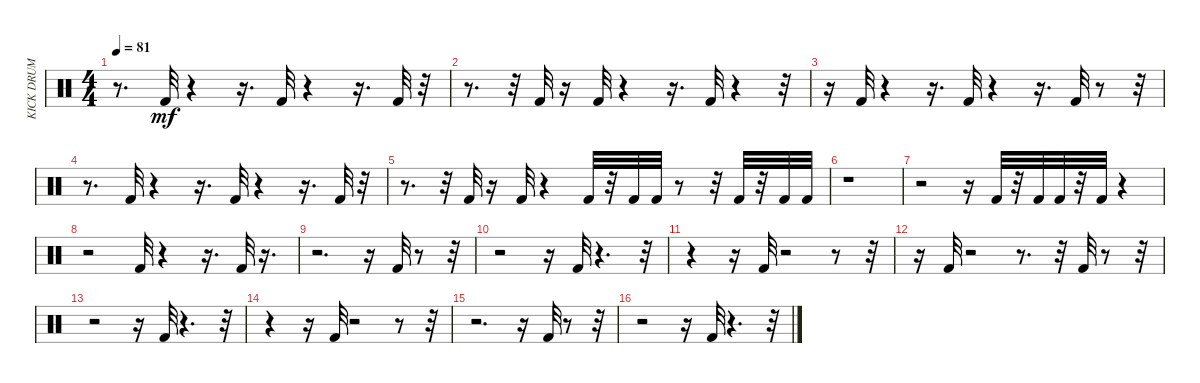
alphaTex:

\track ("KICK DRUM LOW." "KICK DRUM ") {instrument percussion}
\staff {score}
\articulation defaults
\ts (4 4)
\tempo 81
\clef neutral
\ks c
r.8{d dy mf} "Kick (hit) 2".32 r.4 r.16{d} "Kick (hit) 2".32 r.4 r.16{d} "Kick (hit) 2".32 r.32 |
r.8{d} r.32 "Kick (hit) 2".32 r.16 "Kick (hit) 2".32 r.4 r.16{d} "Kick (hit) 2".32 r.4 r.32 |
r.16 "Kick (hit) 2".32 r.4 r.16{d} "Kick (hit) 2".32 r.4 r.16{d} "Kick (hit) 2".32 r.8 r.32 |
r.8{d} "Kick (hit) 2".32 r.4 r.16{d} "Kick (hit) 2".32 r.4 r.16{d} "Kick (hit) 2".32 r.32 |
r.8{d} r.32 "Kick (hit) 2".32 r.16 "Kick (hit) 2".32 r.4 "Kick (hit) 2".32 r.32 "Kick (hit) 2".32 "Kick (hit) 2".32 r.8 r.32 "Kick (hit) 2".32 r.32 "Kick (hit) 2".32 "Kick (hit) 2".32 |
r.1 |
r.2 r.16 "Kick (hit) 2".32 r.32 "Kick (hit) 2".32 "Kick (hit) 2".32 r.32 "Kick (hit) 2".32 r.4 |
r.2 "Kick (hit) 2".32 r.4 r.16{d} "Kick (hit) 2".32 r.16{d} |
r.2{d} r.16 "Kick (hit) 2".32 r.8 r.32 |
r.2 r.16 "Kick (hit) 2".32 r.4{d} r.32 |
r.4 r.16 "Kick (hit) 2".32 r.2 r.8 r.32 |
r.16 "Kick (hit) 2".32 r.2 r.8{d} r.32 "Kick (hit) 2".32 r.8 r.32 |
r.2 r.16 "Kick (hit) 2".32 r.4{d} r.32 |
r.4 r.16 "Kick (hit) 2".32 r.2 r.8 r.32 |
r.2{d} r.16 "Kick (hit) 2".32 r.8 r.32 |
r.2 r.16 "Kick (hit) 2".32 r.4{d} r.32
